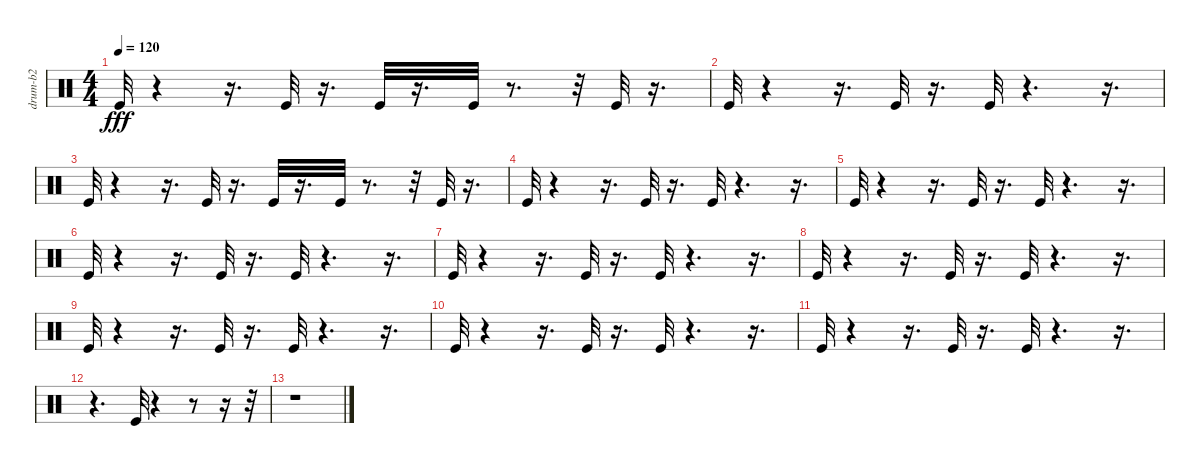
\track ("drum-b2" "drum-b2") {instrument percussion}
\staff {score}
\articulation defaults
\ts (4 4)
\tempo 120
\clef neutral
\ks c "Kick (hit)".32{dy fff}
r.4 r.16{d} "Kick (hit)".32 r.16{d} "Kick (hit)".32 r.16{d} "Kick (hit)".32 r.8{d} r.32 "Kick (hit)".32 r.16{d} |
"Kick (hit)".32 r.4 r.16{d} "Kick (hit)".32 r.16{d} "Kick (hit)".32 r.4{d} r.16{d} |
"Kick (hit)".32 r.4 r.16{d} "Kick (hit)".32 r.16{d} "Kick (hit)".32 r.16{d} "Kick (hit)".32 r.8{d} r.32 "Kick (hit)".32 r.16{d} |
"Kick (hit)".32 r.4 r.16{d} "Kick (hit)".32 r.16{d} "Kick (hit)".32 r.4{d} r.16{d} |
"Kick (hit)".32 r.4 r.16{d} "Kick (hit)".32 r.16{d} "Kick (hit)".32 r.4{d} r.16{d} |
"Kick (hit)".32 r.4 r.16{d} "Kick (hit)".32 r.16{d} "Kick (hit)".32 r.4{d} r.16{d} |
"Kick (hit)".32 r.4 r.16{d} "Kick (hit)".32 r.16{d} "Kick (hit)".32 r.4{d} r.16{d} |
"Kick (hit)".32 r.4 r.16{d} "Kick (hit)".32 r.16{d} "Kick (hit)".32 r.4{d} r.16{d} |
"Kick (hit)".32 r.4 r.16{d} "Kick (hit)".32 r.16{d} "Kick (hit)".32 r.4{d} r.16{d} |
"Kick (hit)".32 r.4 r.16{d} "Kick (hit)".32 r.16{d} "Kick (hit)".32 r.4{d} r.16{d} |
"Kick (hit)".32 r.4 r.16{d} "Kick (hit)".32 r.16{d} "Kick (hit)".32 r.4{d} r.16{d} |
r.4{d} "Kick (hit)".32 r.4 r.8 r.16 r.32 |
r.1
